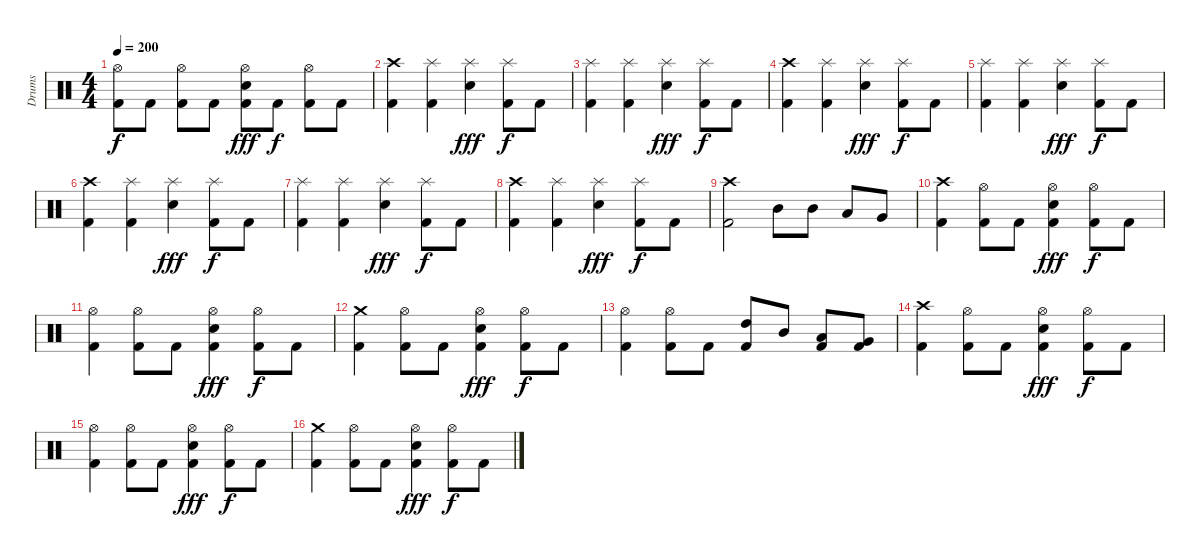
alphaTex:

\track ("Drums" "Drums") {instrument percussion}
\staff {score}
\articulation defaults
\ts (4 4)
\tempo 200
\clef neutral
\ks c
("Hi-Hat (open)" "Kick (hit) 2").8{dy f} "Kick (hit) 2".8 ("Hi-Hat (open)" "Kick (hit) 2").8 "Kick (hit) 2".8 ("Hi-Hat (open)" "Snare (hit) 2" "Kick (hit) 2").8{dy fff} "Kick (hit) 2".8{dy f} ("Hi-Hat (open)" "Kick (hit) 2").8 "Kick (hit) 2".8 |
("Crash high (hit)" "Kick (hit) 2").4 ("Splash (hit)" "Kick (hit) 2").4 ("Splash (hit)" "Snare (hit) 2").4{dy fff} ("Splash (hit)" "Kick (hit) 2").8{dy f} "Kick (hit) 2".8 |
("Splash (hit)" "Kick (hit) 2").4 ("Splash (hit)" "Kick (hit) 2").4 ("Splash (hit)" "Snare (hit) 2").4{dy fff} ("Splash (hit)" "Kick (hit) 2").8{dy f} "Kick (hit) 2".8 |
("Crash high (hit)" "Kick (hit) 2").4 ("Splash (hit)" "Kick (hit) 2").4 ("Splash (hit)" "Snare (hit) 2").4{dy fff} ("Splash (hit)" "Kick (hit) 2").8{dy f} "Kick (hit) 2".8 |
("Splash (hit)" "Kick (hit) 2").4 ("Splash (hit)" "Kick (hit) 2").4 ("Splash (hit)" "Snare (hit) 2").4{dy fff} ("Splash (hit)" "Kick (hit) 2").8{dy f} "Kick (hit) 2".8 |
("Crash high (hit)" "Kick (hit) 2").4 ("Splash (hit)" "Kick (hit) 2").4 ("Splash (hit)" "Snare (hit) 2").4{dy fff} ("Splash (hit)" "Kick (hit) 2").8{dy f} "Kick (hit) 2".8 |
("Splash (hit)" "Kick (hit) 2").4 ("Splash (hit)" "Kick (hit) 2").4 ("Splash (hit)" "Snare (hit) 2").4{dy fff} ("Splash (hit)" "Kick (hit) 2").8{dy f} "Kick (hit) 2".8 |
("Crash high (hit)" "Kick (hit) 2").4 ("Splash (hit)" "Kick (hit) 2").4 ("Splash (hit)" "Snare (hit) 2").4{dy fff} ("Splash (hit)" "Kick (hit) 2").8{dy f} "Kick (hit) 2".8 |
("Crash high (hit)" "Kick (hit) 2").2 "Mid Tom (hit)".8 "Mid Tom (hit)".8 "Low Tom (hit)".8 "Very Low Tom (hit)".8 |
("Crash high (hit)" "Kick (hit) 2").4 ("Hi-Hat (open)" "Kick (hit) 2").8 "Kick (hit) 2".8 ("Hi-Hat (open)" "Snare (hit) 2" "Kick (hit) 2").4{dy fff} ("Hi-Hat (open)" "Kick (hit) 2").8{dy f} "Kick (hit) 2".8 |
("Hi-Hat (open)" "Kick (hit) 2").4 ("Hi-Hat (open)" "Kick (hit) 2").8 "Kick (hit) 2".8 ("Hi-Hat (open)" "Snare (hit) 2" "Kick (hit) 2").4{dy fff} ("Hi-Hat (open)" "Kick (hit) 2").8{dy f} "Kick (hit) 2".8 |
("Crash medium (hit)" "Kick (hit) 2").4 ("Hi-Hat (open)" "Kick (hit) 2").8 "Kick (hit) 2".8 ("Hi-Hat (open)" "Snare (hit) 2" "Kick (hit) 2").4{dy fff} ("Hi-Hat (open)" "Kick (hit) 2").8{dy f} "Kick (hit) 2".8 |
("Hi-Hat (open)" "Kick (hit) 2").4 ("Hi-Hat (open)" "Kick (hit) 2").8 "Kick (hit) 2".8 ("High Tom (hit)" "Kick (hit) 2").8 "Mid Tom (hit)".8 ("Low Tom (hit)" "Kick (hit) 2").8 ("Very Low Tom (hit)" "Kick (hit) 2").8 |
("Crash high (hit)" "Kick (hit) 2").4 ("Hi-Hat (open)" "Kick (hit) 2").8 "Kick (hit) 2".8 ("Hi-Hat (open)" "Snare (hit) 2" "Kick (hit) 2").4{dy fff} ("Hi-Hat (open)" "Kick (hit) 2").8{dy f} "Kick (hit) 2".8 |
("Hi-Hat (open)" "Kick (hit) 2").4 ("Hi-Hat (open)" "Kick (hit) 2").8 "Kick (hit) 2".8 ("Hi-Hat (open)" "Snare (hit) 2" "Kick (hit) 2").4{dy fff} ("Hi-Hat (open)" "Kick (hit) 2").8{dy f} "Kick (hit) 2".8 |
("Crash medium (hit)" "Kick (hit) 2").4 ("Hi-Hat (open)" "Kick (hit) 2").8 "Kick (hit) 2".8 ("Hi-Hat (open)" "Snare (hit) 2" "Kick (hit) 2").4{dy fff} ("Hi-Hat (open)" "Kick (hit) 2").8{dy f} "Kick (hit) 2".8
